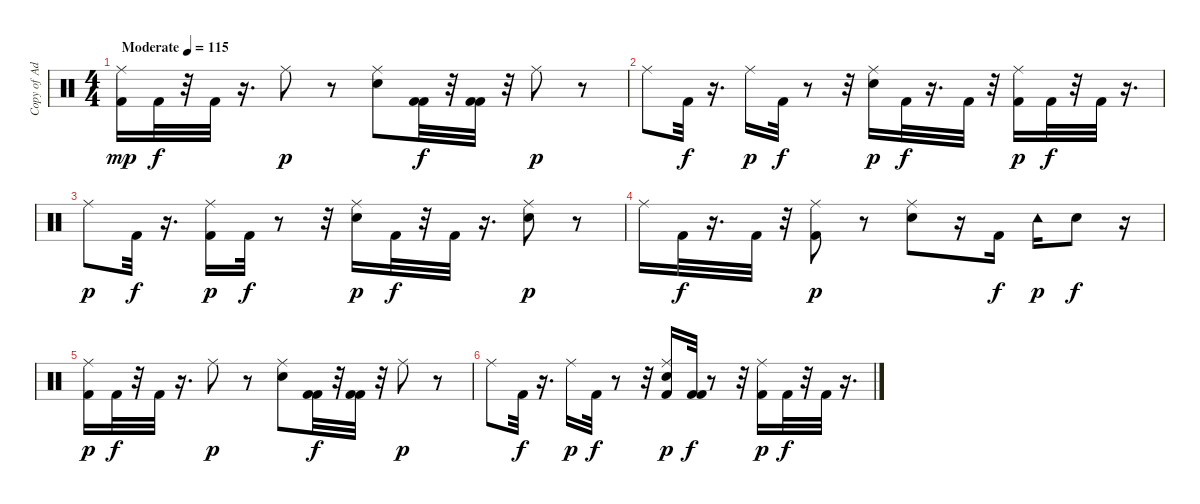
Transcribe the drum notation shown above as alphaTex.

\track ("Copy of Addictive Drums 02" "Copy of Ad") {instrument percussion}
\staff {score}
\articulation defaults
\ts (4 4)
\tempo (115 "Moderate")
\clef neutral
\ks c
("Kick (hit) 2" "Ride (middle)").16{dy mp} "Kick (hit) 2".32{dy f} r.32 "Kick (hit) 2".32 r.16{d} "Ride (middle)".8{dy p} r.8 ("Snare (hit) 2" "Ride (middle)").8 ("Kick (hit) 2" "Kick (hit) 2").32{dy f} r.32 ("Kick (hit) 2" "Kick (hit) 2").32 r.32 "Ride (middle)".8{dy p} r.8 |
"Ride (middle)".8 "Kick (hit) 2".32{dy f} r.16{d} "Ride (middle)".16{dy p} "Kick (hit) 2".32{dy f} r.8 r.32 ("Electric Snare (hit)" "Ride (middle)").16{dy p} "Kick (hit) 2".32{dy f} r.16{d} "Kick (hit) 2".32 r.32 ("Kick (hit) 2" "Ride (middle)").16{dy p} "Kick (hit) 2".32{dy f} r.32 "Kick (hit) 2".32 r.16{d} |
"Ride (middle)".8{dy p} "Kick (hit) 2".32{dy f} r.16{d} ("Kick (hit) 2" "Ride (middle)").16{dy p} "Kick (hit) 2".32{dy f} r.8 r.32 ("Snare (hit) 2" "Ride (middle)").16{dy p} "Kick (hit) 2".32{dy f} r.32 "Kick (hit) 2".32 r.16{d} ("Snare (hit) 2" "Ride (middle)").8{dy p} r.8 |
"Ride (middle)".16 "Kick (hit) 2".32{dy f} r.16{d} "Kick (hit) 2".32 r.32 ("Kick (hit) 2" "Ride (middle)").8{dy p} r.8 ("Electric Snare (hit)" "Ride (middle)").8 r.16 "Kick (hit) 2".16{dy f} "Tambourine (hit)".16{dy p} "Electric Snare (hit)".8{dy f} r.16 |
("Kick (hit) 2" "Ride (middle)").16{dy p} "Kick (hit) 2".32{dy f} r.32 "Kick (hit) 2".32 r.16{d} "Ride (middle)".8{dy p} r.8 ("Snare (hit) 2" "Ride (middle)").8 ("Kick (hit) 2" "Kick (hit) 2").32{dy f} r.32 ("Kick (hit) 2" "Kick (hit) 2").32 r.32 "Ride (middle)".8{dy p} r.8 |
"Ride (middle)".8 "Kick (hit) 2".32{dy f} r.16{d} "Ride (middle)".16{dy p} "Kick (hit) 2".32{dy f} r.8 r.32 ("Electric Snare (hit)" "Ride (middle)" "Kick (hit) 2").16{dy p} ("Kick (hit) 2" "Kick (hit) 2").32{dy f} r.8 r.32 ("Kick (hit) 2" "Ride (middle)").16{dy p} "Kick (hit) 2".32{dy f} r.32 "Kick (hit) 2".32 r.16{d}
